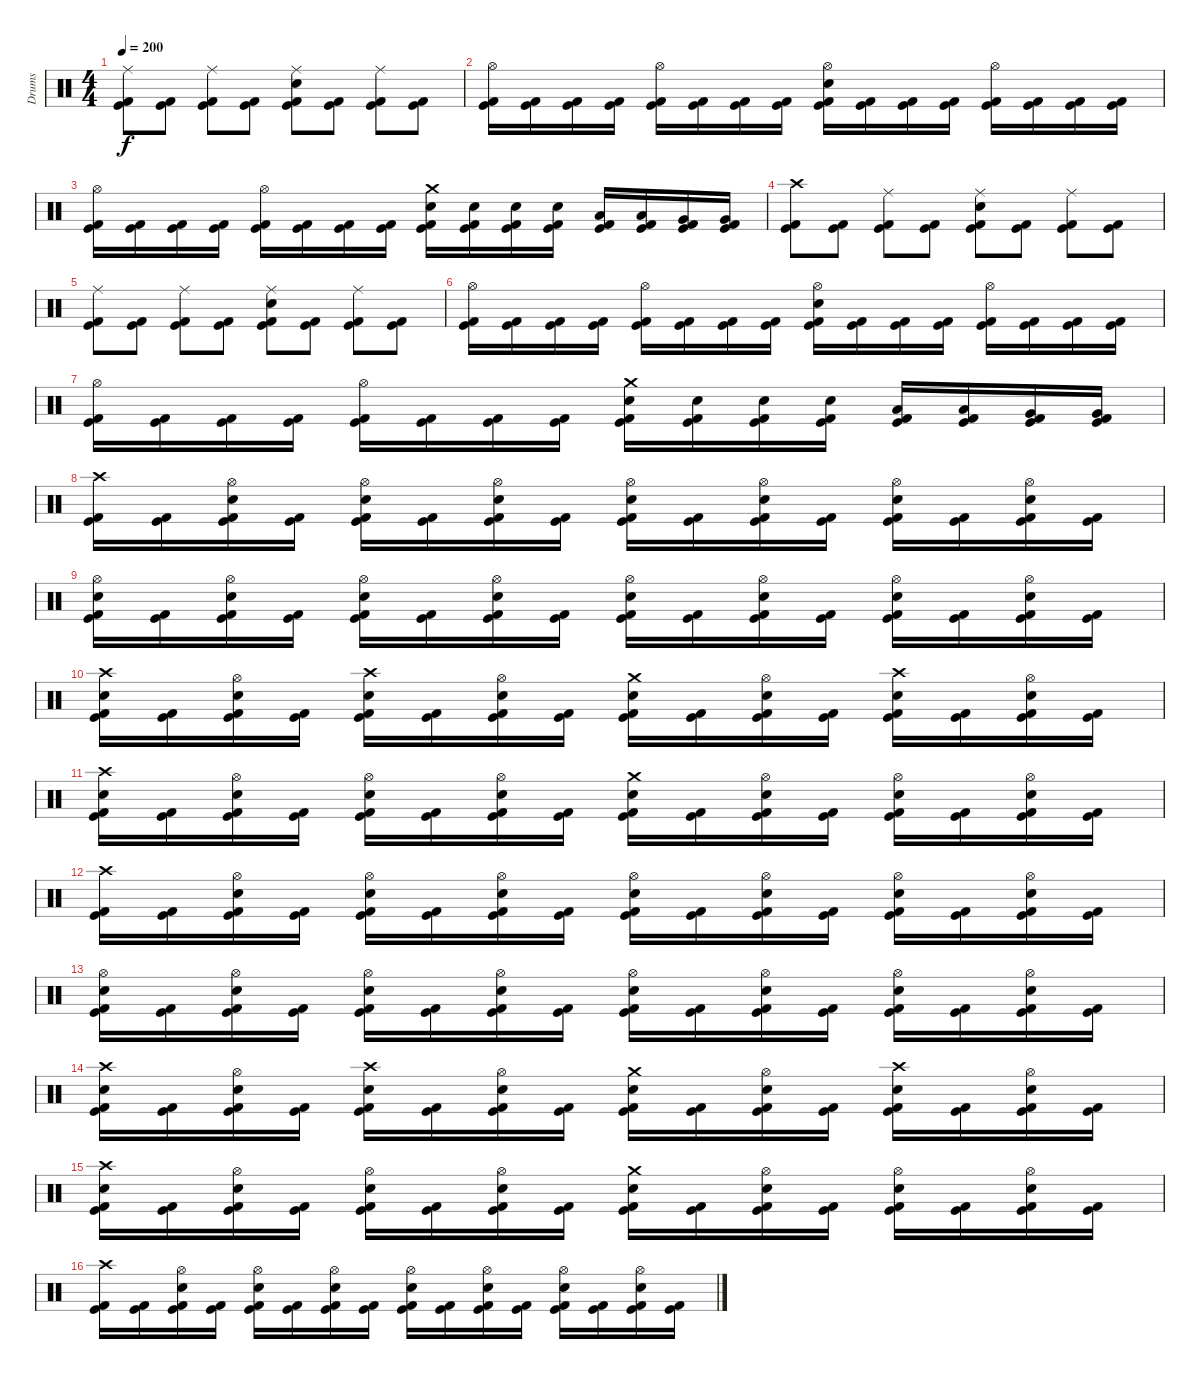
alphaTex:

\track ("Drums" "Drums") {instrument percussion}
\staff {score}
\articulation defaults
\ts (4 4)
\tempo 200
\clef neutral
\ks c
("Ride (middle)" "Kick (hit)" "Kick (hit) 2").8{dy f} ("Kick (hit)" "Kick (hit) 2").8 ("Ride (middle)" "Kick (hit)" "Kick (hit) 2").8 ("Kick (hit)" "Kick (hit) 2").8 ("Ride (middle)" "Electric Snare (hit)" "Kick (hit)" "Kick (hit) 2").8 ("Kick (hit)" "Kick (hit) 2").8 ("Ride (middle)" "Kick (hit)" "Kick (hit) 2").8 ("Kick (hit)" "Kick (hit) 2").8 |
("Hi-Hat (open)" "Kick (hit)" "Kick (hit) 2").16 ("Kick (hit)" "Kick (hit) 2").16 ("Kick (hit)" "Kick (hit) 2").16 ("Kick (hit)" "Kick (hit) 2").16 ("Hi-Hat (open)" "Kick (hit)" "Kick (hit) 2").16 ("Kick (hit)" "Kick (hit) 2").16 ("Kick (hit)" "Kick (hit) 2").16 ("Kick (hit)" "Kick (hit) 2").16 ("Hi-Hat (open)" "Electric Snare (hit)" "Kick (hit)" "Kick (hit) 2").16 ("Kick (hit)" "Kick (hit) 2").16 ("Kick (hit)" "Kick (hit) 2").16 ("Kick (hit)" "Kick (hit) 2").16 ("Hi-Hat (open)" "Kick (hit)" "Kick (hit) 2").16 ("Kick (hit)" "Kick (hit) 2").16 ("Kick (hit)" "Kick (hit) 2").16 ("Kick (hit)" "Kick (hit) 2").16 |
("Hi-Hat (open)" "Kick (hit)" "Kick (hit) 2").16 ("Kick (hit)" "Kick (hit) 2").16 ("Kick (hit)" "Kick (hit) 2").16 ("Kick (hit)" "Kick (hit) 2").16 ("Hi-Hat (open)" "Kick (hit)" "Kick (hit) 2").16 ("Kick (hit)" "Kick (hit) 2").16 ("Kick (hit)" "Kick (hit) 2").16 ("Kick (hit)" "Kick (hit) 2").16 ("Crash medium (hit)" "Electric Snare (hit)" "Kick (hit)" "Kick (hit) 2").16 ("Electric Snare (hit)" "Kick (hit)" "Kick (hit) 2").16 ("Electric Snare (hit)" "Kick (hit)" "Kick (hit) 2").16 ("Electric Snare (hit)" "Kick (hit)" "Kick (hit) 2").16 ("Low Tom (hit)" "Kick (hit)" "Kick (hit) 2").16 ("Low Tom (hit)" "Kick (hit)" "Kick (hit) 2").16 ("Very Low Tom (hit)" "Kick (hit)" "Kick (hit) 2").16 ("Very Low Tom (hit)" "Kick (hit)" "Kick (hit) 2").16 |
("Crash high (hit)" "Kick (hit)" "Kick (hit) 2").8 ("Kick (hit)" "Kick (hit) 2").8 ("Ride (middle)" "Kick (hit)" "Kick (hit) 2").8 ("Kick (hit)" "Kick (hit) 2").8 ("Ride (middle)" "Electric Snare (hit)" "Kick (hit)" "Kick (hit) 2").8 ("Kick (hit)" "Kick (hit) 2").8 ("Ride (middle)" "Kick (hit)" "Kick (hit) 2").8 ("Kick (hit)" "Kick (hit) 2").8 |
("Ride (middle)" "Kick (hit)" "Kick (hit) 2").8 ("Kick (hit)" "Kick (hit) 2").8 ("Ride (middle)" "Kick (hit)" "Kick (hit) 2").8 ("Kick (hit)" "Kick (hit) 2").8 ("Ride (middle)" "Electric Snare (hit)" "Kick (hit)" "Kick (hit) 2").8 ("Kick (hit)" "Kick (hit) 2").8 ("Ride (middle)" "Kick (hit)" "Kick (hit) 2").8 ("Kick (hit)" "Kick (hit) 2").8 |
("Hi-Hat (open)" "Kick (hit)" "Kick (hit) 2").16 ("Kick (hit)" "Kick (hit) 2").16 ("Kick (hit)" "Kick (hit) 2").16 ("Kick (hit)" "Kick (hit) 2").16 ("Hi-Hat (open)" "Kick (hit)" "Kick (hit) 2").16 ("Kick (hit)" "Kick (hit) 2").16 ("Kick (hit)" "Kick (hit) 2").16 ("Kick (hit)" "Kick (hit) 2").16 ("Hi-Hat (open)" "Electric Snare (hit)" "Kick (hit)" "Kick (hit) 2").16 ("Kick (hit)" "Kick (hit) 2").16 ("Kick (hit)" "Kick (hit) 2").16 ("Kick (hit)" "Kick (hit) 2").16 ("Hi-Hat (open)" "Kick (hit)" "Kick (hit) 2").16 ("Kick (hit)" "Kick (hit) 2").16 ("Kick (hit)" "Kick (hit) 2").16 ("Kick (hit)" "Kick (hit) 2").16 |
("Hi-Hat (open)" "Kick (hit)" "Kick (hit) 2").16 ("Kick (hit)" "Kick (hit) 2").16 ("Kick (hit)" "Kick (hit) 2").16 ("Kick (hit)" "Kick (hit) 2").16 ("Hi-Hat (open)" "Kick (hit)" "Kick (hit) 2").16 ("Kick (hit)" "Kick (hit) 2").16 ("Kick (hit)" "Kick (hit) 2").16 ("Kick (hit)" "Kick (hit) 2").16 ("Crash medium (hit)" "Electric Snare (hit)" "Kick (hit)" "Kick (hit) 2").16 ("Electric Snare (hit)" "Kick (hit)" "Kick (hit) 2").16 ("Electric Snare (hit)" "Kick (hit)" "Kick (hit) 2").16 ("Electric Snare (hit)" "Kick (hit)" "Kick (hit) 2").16 ("Low Tom (hit)" "Kick (hit)" "Kick (hit) 2").16 ("Low Tom (hit)" "Kick (hit)" "Kick (hit) 2").16 ("Very Low Tom (hit)" "Kick (hit)" "Kick (hit) 2").16 ("Very Low Tom (hit)" "Kick (hit)" "Kick (hit) 2").16 |
("Crash high (hit)" "Kick (hit)" "Kick (hit) 2").16 ("Kick (hit)" "Kick (hit) 2").16 ("Hi-Hat (open)" "Electric Snare (hit)" "Kick (hit)" "Kick (hit) 2").16 ("Kick (hit)" "Kick (hit) 2").16 ("Hi-Hat (open)" "Electric Snare (hit)" "Kick (hit)" "Kick (hit) 2").16 ("Kick (hit)" "Kick (hit) 2").16 ("Hi-Hat (open)" "Electric Snare (hit)" "Kick (hit)" "Kick (hit) 2").16 ("Kick (hit)" "Kick (hit) 2").16 ("Hi-Hat (open)" "Electric Snare (hit)" "Kick (hit)" "Kick (hit) 2").16 ("Kick (hit)" "Kick (hit) 2").16 ("Hi-Hat (open)" "Electric Snare (hit)" "Kick (hit)" "Kick (hit) 2").16 ("Kick (hit)" "Kick (hit) 2").16 ("Hi-Hat (open)" "Electric Snare (hit)" "Kick (hit)" "Kick (hit) 2").16 ("Kick (hit)" "Kick (hit) 2").16 ("Hi-Hat (open)" "Electric Snare (hit)" "Kick (hit)" "Kick (hit) 2").16 ("Kick (hit)" "Kick (hit) 2").16 |
("Hi-Hat (open)" "Electric Snare (hit)" "Kick (hit)" "Kick (hit) 2").16 ("Kick (hit)" "Kick (hit) 2").16 ("Hi-Hat (open)" "Electric Snare (hit)" "Kick (hit)" "Kick (hit) 2").16 ("Kick (hit)" "Kick (hit) 2").16 ("Hi-Hat (open)" "Electric Snare (hit)" "Kick (hit)" "Kick (hit) 2").16 ("Kick (hit)" "Kick (hit) 2").16 ("Hi-Hat (open)" "Electric Snare (hit)" "Kick (hit)" "Kick (hit) 2").16 ("Kick (hit)" "Kick (hit) 2").16 ("Hi-Hat (open)" "Electric Snare (hit)" "Kick (hit)" "Kick (hit) 2").16 ("Kick (hit)" "Kick (hit) 2").16 ("Hi-Hat (open)" "Electric Snare (hit)" "Kick (hit)" "Kick (hit) 2").16 ("Kick (hit)" "Kick (hit) 2").16 ("Hi-Hat (open)" "Electric Snare (hit)" "Kick (hit)" "Kick (hit) 2").16 ("Kick (hit)" "Kick (hit) 2").16 ("Hi-Hat (open)" "Electric Snare (hit)" "Kick (hit)" "Kick (hit) 2").16 ("Kick (hit)" "Kick (hit) 2").16 |
("Crash high (hit)" "Electric Snare (hit)" "Kick (hit)" "Kick (hit) 2").16 ("Kick (hit)" "Kick (hit) 2").16 ("Hi-Hat (open)" "Electric Snare (hit)" "Kick (hit)" "Kick (hit) 2").16 ("Kick (hit)" "Kick (hit) 2").16 ("Crash high (hit)" "Electric Snare (hit)" "Kick (hit)" "Kick (hit) 2").16 ("Kick (hit)" "Kick (hit) 2").16 ("Hi-Hat (open)" "Electric Snare (hit)" "Kick (hit)" "Kick (hit) 2").16 ("Kick (hit)" "Kick (hit) 2").16 ("Crash medium (hit)" "Electric Snare (hit)" "Kick (hit)" "Kick (hit) 2").16 ("Kick (hit)" "Kick (hit) 2").16 ("Hi-Hat (open)" "Electric Snare (hit)" "Kick (hit)" "Kick (hit) 2").16 ("Kick (hit)" "Kick (hit) 2").16 ("Crash high (hit)" "Electric Snare (hit)" "Kick (hit)" "Kick (hit) 2").16 ("Kick (hit)" "Kick (hit) 2").16 ("Hi-Hat (open)" "Electric Snare (hit)" "Kick (hit)" "Kick (hit) 2").16 ("Kick (hit)" "Kick (hit) 2").16 |
("Crash high (hit)" "Electric Snare (hit)" "Kick (hit)" "Kick (hit) 2").16 ("Kick (hit)" "Kick (hit) 2").16 ("Hi-Hat (open)" "Electric Snare (hit)" "Kick (hit)" "Kick (hit) 2").16 ("Kick (hit)" "Kick (hit) 2").16 ("Hi-Hat (open)" "Electric Snare (hit)" "Kick (hit)" "Kick (hit) 2").16 ("Kick (hit)" "Kick (hit) 2").16 ("Hi-Hat (open)" "Electric Snare (hit)" "Kick (hit)" "Kick (hit) 2").16 ("Kick (hit)" "Kick (hit) 2").16 ("Crash medium (hit)" "Electric Snare (hit)" "Kick (hit)" "Kick (hit) 2").16 ("Kick (hit)" "Kick (hit) 2").16 ("Hi-Hat (open)" "Electric Snare (hit)" "Kick (hit)" "Kick (hit) 2").16 ("Kick (hit)" "Kick (hit) 2").16 ("Hi-Hat (open)" "Electric Snare (hit)" "Kick (hit)" "Kick (hit) 2").16 ("Kick (hit)" "Kick (hit) 2").16 ("Hi-Hat (open)" "Electric Snare (hit)" "Kick (hit)" "Kick (hit) 2").16 ("Kick (hit)" "Kick (hit) 2").16 |
("Crash high (hit)" "Kick (hit)" "Kick (hit) 2").16 ("Kick (hit)" "Kick (hit) 2").16 ("Hi-Hat (open)" "Electric Snare (hit)" "Kick (hit)" "Kick (hit) 2").16 ("Kick (hit)" "Kick (hit) 2").16 ("Hi-Hat (open)" "Electric Snare (hit)" "Kick (hit)" "Kick (hit) 2").16 ("Kick (hit)" "Kick (hit) 2").16 ("Hi-Hat (open)" "Electric Snare (hit)" "Kick (hit)" "Kick (hit) 2").16 ("Kick (hit)" "Kick (hit) 2").16 ("Hi-Hat (open)" "Electric Snare (hit)" "Kick (hit)" "Kick (hit) 2").16 ("Kick (hit)" "Kick (hit) 2").16 ("Hi-Hat (open)" "Electric Snare (hit)" "Kick (hit)" "Kick (hit) 2").16 ("Kick (hit)" "Kick (hit) 2").16 ("Hi-Hat (open)" "Electric Snare (hit)" "Kick (hit)" "Kick (hit) 2").16 ("Kick (hit)" "Kick (hit) 2").16 ("Hi-Hat (open)" "Electric Snare (hit)" "Kick (hit)" "Kick (hit) 2").16 ("Kick (hit)" "Kick (hit) 2").16 |
("Hi-Hat (open)" "Electric Snare (hit)" "Kick (hit)" "Kick (hit) 2").16 ("Kick (hit)" "Kick (hit) 2").16 ("Hi-Hat (open)" "Electric Snare (hit)" "Kick (hit)" "Kick (hit) 2").16 ("Kick (hit)" "Kick (hit) 2").16 ("Hi-Hat (open)" "Electric Snare (hit)" "Kick (hit)" "Kick (hit) 2").16 ("Kick (hit)" "Kick (hit) 2").16 ("Hi-Hat (open)" "Electric Snare (hit)" "Kick (hit)" "Kick (hit) 2").16 ("Kick (hit)" "Kick (hit) 2").16 ("Hi-Hat (open)" "Electric Snare (hit)" "Kick (hit)" "Kick (hit) 2").16 ("Kick (hit)" "Kick (hit) 2").16 ("Hi-Hat (open)" "Electric Snare (hit)" "Kick (hit)" "Kick (hit) 2").16 ("Kick (hit)" "Kick (hit) 2").16 ("Hi-Hat (open)" "Electric Snare (hit)" "Kick (hit)" "Kick (hit) 2").16 ("Kick (hit)" "Kick (hit) 2").16 ("Hi-Hat (open)" "Electric Snare (hit)" "Kick (hit)" "Kick (hit) 2").16 ("Kick (hit)" "Kick (hit) 2").16 |
("Crash high (hit)" "Electric Snare (hit)" "Kick (hit)" "Kick (hit) 2").16 ("Kick (hit)" "Kick (hit) 2").16 ("Hi-Hat (open)" "Electric Snare (hit)" "Kick (hit)" "Kick (hit) 2").16 ("Kick (hit)" "Kick (hit) 2").16 ("Crash high (hit)" "Electric Snare (hit)" "Kick (hit)" "Kick (hit) 2").16 ("Kick (hit)" "Kick (hit) 2").16 ("Hi-Hat (open)" "Electric Snare (hit)" "Kick (hit)" "Kick (hit) 2").16 ("Kick (hit)" "Kick (hit) 2").16 ("Crash medium (hit)" "Electric Snare (hit)" "Kick (hit)" "Kick (hit) 2").16 ("Kick (hit)" "Kick (hit) 2").16 ("Hi-Hat (open)" "Electric Snare (hit)" "Kick (hit)" "Kick (hit) 2").16 ("Kick (hit)" "Kick (hit) 2").16 ("Crash high (hit)" "Electric Snare (hit)" "Kick (hit)" "Kick (hit) 2").16 ("Kick (hit)" "Kick (hit) 2").16 ("Hi-Hat (open)" "Electric Snare (hit)" "Kick (hit)" "Kick (hit) 2").16 ("Kick (hit)" "Kick (hit) 2").16 |
("Crash high (hit)" "Electric Snare (hit)" "Kick (hit)" "Kick (hit) 2").16 ("Kick (hit)" "Kick (hit) 2").16 ("Hi-Hat (open)" "Electric Snare (hit)" "Kick (hit)" "Kick (hit) 2").16 ("Kick (hit)" "Kick (hit) 2").16 ("Hi-Hat (open)" "Electric Snare (hit)" "Kick (hit)" "Kick (hit) 2").16 ("Kick (hit)" "Kick (hit) 2").16 ("Hi-Hat (open)" "Electric Snare (hit)" "Kick (hit)" "Kick (hit) 2").16 ("Kick (hit)" "Kick (hit) 2").16 ("Crash medium (hit)" "Electric Snare (hit)" "Kick (hit)" "Kick (hit) 2").16 ("Kick (hit)" "Kick (hit) 2").16 ("Hi-Hat (open)" "Electric Snare (hit)" "Kick (hit)" "Kick (hit) 2").16 ("Kick (hit)" "Kick (hit) 2").16 ("Hi-Hat (open)" "Electric Snare (hit)" "Kick (hit)" "Kick (hit) 2").16 ("Kick (hit)" "Kick (hit) 2").16 ("Hi-Hat (open)" "Electric Snare (hit)" "Kick (hit)" "Kick (hit) 2").16 ("Kick (hit)" "Kick (hit) 2").16 |
("Crash high (hit)" "Kick (hit)" "Kick (hit) 2").16 ("Kick (hit)" "Kick (hit) 2").16 ("Hi-Hat (open)" "Electric Snare (hit)" "Kick (hit)" "Kick (hit) 2").16 ("Kick (hit)" "Kick (hit) 2").16 ("Hi-Hat (open)" "Electric Snare (hit)" "Kick (hit)" "Kick (hit) 2").16 ("Kick (hit)" "Kick (hit) 2").16 ("Hi-Hat (open)" "Electric Snare (hit)" "Kick (hit)" "Kick (hit) 2").16 ("Kick (hit)" "Kick (hit) 2").16 ("Hi-Hat (open)" "Electric Snare (hit)" "Kick (hit)" "Kick (hit) 2").16 ("Kick (hit)" "Kick (hit) 2").16 ("Hi-Hat (open)" "Electric Snare (hit)" "Kick (hit)" "Kick (hit) 2").16 ("Kick (hit)" "Kick (hit) 2").16 ("Hi-Hat (open)" "Electric Snare (hit)" "Kick (hit)" "Kick (hit) 2").16 ("Kick (hit)" "Kick (hit) 2").16 ("Hi-Hat (open)" "Electric Snare (hit)" "Kick (hit)" "Kick (hit) 2").16 ("Kick (hit)" "Kick (hit) 2").16
